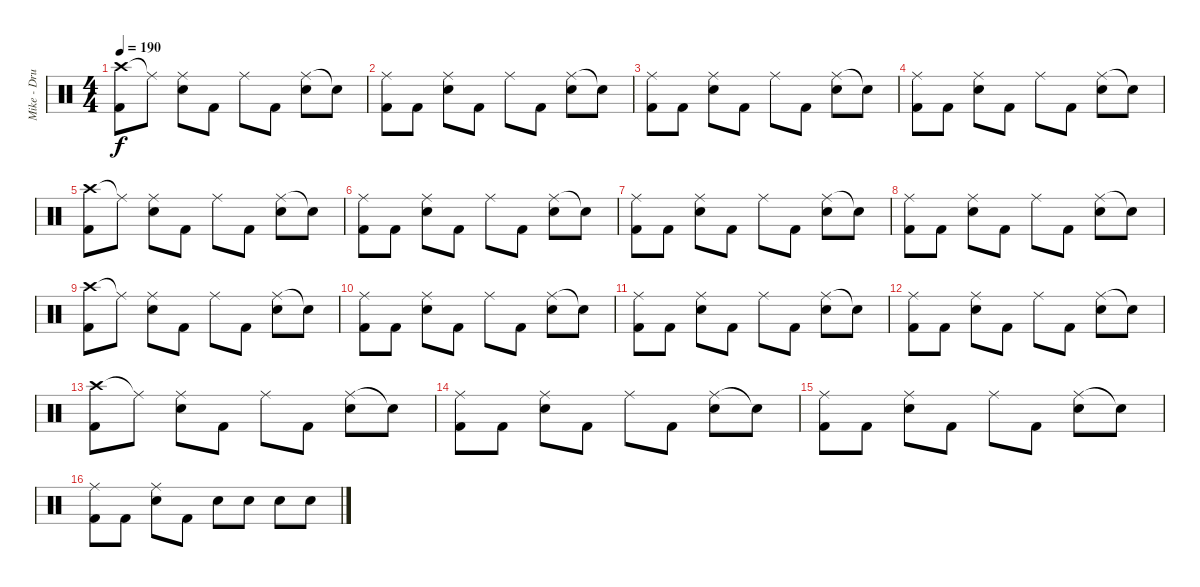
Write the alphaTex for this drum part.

\track ("Mike - Drums" "Mike - Dru") {instrument percussion}
\staff {score}
\articulation defaults
\ts (4 4)
\tempo 190
\clef neutral
\ks c
("Crash high (hit)" "Kick (hit) 2").8{dy f} "Ride (middle)"{t}.8 ("Ride (middle)" "Snare (hit) 2").8 "Kick (hit) 2".8 "Ride (middle)".8 "Kick (hit) 2".8 ("Ride (middle)" "Snare (hit) 2").8 "Snare (hit)"{t}.8 |
("Ride (middle)" "Kick (hit) 2").8 "Kick (hit) 2".8 ("Ride (middle)" "Snare (hit) 2").8 "Kick (hit) 2".8 "Ride (middle)".8 "Kick (hit) 2".8 ("Ride (middle)" "Snare (hit) 2").8 "Snare (hit)"{t}.8 |
("Ride (middle)" "Kick (hit) 2").8 "Kick (hit) 2".8 ("Ride (middle)" "Snare (hit) 2").8 "Kick (hit) 2".8 "Ride (middle)".8 "Kick (hit) 2".8 ("Ride (middle)" "Snare (hit) 2").8 "Snare (hit)"{t}.8 |
("Ride (middle)" "Kick (hit) 2").8 "Kick (hit) 2".8 ("Ride (middle)" "Snare (hit) 2").8 "Kick (hit) 2".8 "Ride (middle)".8 "Kick (hit) 2".8 ("Ride (middle)" "Snare (hit) 2").8 "Snare (hit)"{t}.8 |
("Crash high (hit)" "Kick (hit) 2").8 "Ride (middle)"{t}.8 ("Ride (middle)" "Snare (hit) 2").8 "Kick (hit) 2".8 "Ride (middle)".8 "Kick (hit) 2".8 ("Ride (middle)" "Snare (hit) 2").8 "Snare (hit)"{t}.8 |
("Ride (middle)" "Kick (hit) 2").8 "Kick (hit) 2".8 ("Ride (middle)" "Snare (hit) 2").8 "Kick (hit) 2".8 "Ride (middle)".8 "Kick (hit) 2".8 ("Ride (middle)" "Snare (hit) 2").8 "Snare (hit)"{t}.8 |
("Ride (middle)" "Kick (hit) 2").8 "Kick (hit) 2".8 ("Ride (middle)" "Snare (hit) 2").8 "Kick (hit) 2".8 "Ride (middle)".8 "Kick (hit) 2".8 ("Ride (middle)" "Snare (hit) 2").8 "Snare (hit)"{t}.8 |
("Ride (middle)" "Kick (hit) 2").8 "Kick (hit) 2".8 ("Ride (middle)" "Snare (hit) 2").8 "Kick (hit) 2".8 "Ride (middle)".8 "Kick (hit) 2".8 ("Ride (middle)" "Snare (hit) 2").8 "Snare (hit)"{t}.8 |
("Crash high (hit)" "Kick (hit) 2").8 "Ride (middle)"{t}.8 ("Ride (middle)" "Snare (hit) 2").8 "Kick (hit) 2".8 "Ride (middle)".8 "Kick (hit) 2".8 ("Ride (middle)" "Snare (hit) 2").8 "Snare (hit)"{t}.8 |
("Ride (middle)" "Kick (hit) 2").8 "Kick (hit) 2".8 ("Ride (middle)" "Snare (hit) 2").8 "Kick (hit) 2".8 "Ride (middle)".8 "Kick (hit) 2".8 ("Ride (middle)" "Snare (hit) 2").8 "Snare (hit)"{t}.8 |
("Ride (middle)" "Kick (hit) 2").8 "Kick (hit) 2".8 ("Ride (middle)" "Snare (hit) 2").8 "Kick (hit) 2".8 "Ride (middle)".8 "Kick (hit) 2".8 ("Ride (middle)" "Snare (hit) 2").8 "Snare (hit)"{t}.8 |
("Ride (middle)" "Kick (hit) 2").8 "Kick (hit) 2".8 ("Ride (middle)" "Snare (hit) 2").8 "Kick (hit) 2".8 "Ride (middle)".8 "Kick (hit) 2".8 ("Ride (middle)" "Snare (hit) 2").8 "Snare (hit)"{t}.8 |
("Crash high (hit)" "Kick (hit) 2").8 "Ride (middle)"{t}.8 ("Ride (middle)" "Snare (hit) 2").8 "Kick (hit) 2".8 "Ride (middle)".8 "Kick (hit) 2".8 ("Ride (middle)" "Snare (hit) 2").8 "Snare (hit)"{t}.8 |
("Ride (middle)" "Kick (hit) 2").8 "Kick (hit) 2".8 ("Ride (middle)" "Snare (hit) 2").8 "Kick (hit) 2".8 "Ride (middle)".8 "Kick (hit) 2".8 ("Ride (middle)" "Snare (hit) 2").8 "Snare (hit)"{t}.8 |
("Ride (middle)" "Kick (hit) 2").8 "Kick (hit) 2".8 ("Ride (middle)" "Snare (hit) 2").8 "Kick (hit) 2".8 "Ride (middle)".8 "Kick (hit) 2".8 ("Ride (middle)" "Snare (hit) 2").8 "Snare (hit)"{t}.8 |
("Ride (middle)" "Kick (hit) 2").8 "Kick (hit) 2".8 ("Ride (middle)" "Snare (hit) 2").8 "Kick (hit) 2".8 "Snare (hit) 2".8 "Snare (hit) 2".8 "Snare (hit) 2".8 "Snare (hit) 2".8
